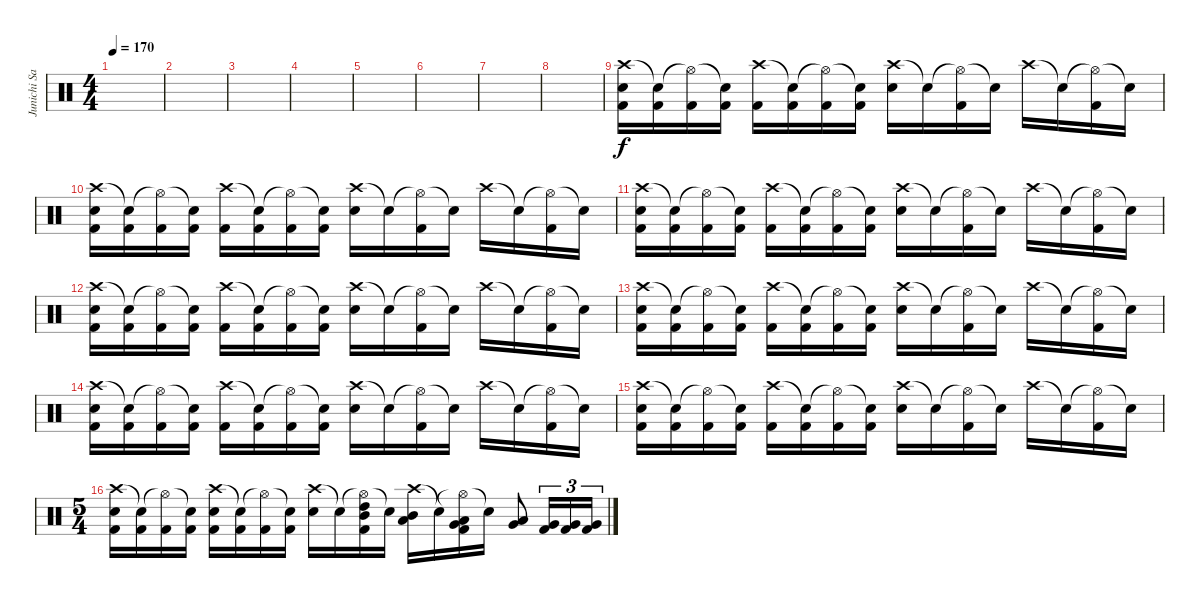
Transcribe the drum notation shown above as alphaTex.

\track ("Junichi Sato" "Junichi Sa") {instrument percussion}
\staff {score}
\articulation defaults
\ts (4 4)
\tempo 170
\clef neutral
\ks c
|
|
|
|
|
|
|
|
("Crash high (hit)" "Snare (hit) 2" "Kick (hit) 2").16 ("Snare (hit)"{t} "Kick (hit) 2").16 ("Hi-Hat (open)"{t} "Kick (hit) 2").16 ("Snare (hit)"{t} "Kick (hit) 2").16 ("Crash high (hit)" "Kick (hit) 2").16 ("Snare (hit)"{t} "Kick (hit) 2").16 ("Hi-Hat (open)"{t} "Kick (hit) 2").16 ("Snare (hit)"{t} "Kick (hit) 2").16 ("Crash high (hit)" "Snare (hit) 2").16 "Snare (hit)"{t}.16 ("Hi-Hat (open)"{t} "Kick (hit) 2").16 "Snare (hit)"{t}.16 "Crash high (hit)".16 "Snare (hit)"{t}.16 ("Hi-Hat (open)"{t} "Kick (hit) 2").16 "Snare (hit)"{t}.16 |
("Crash high (hit)" "Snare (hit) 2" "Kick (hit) 2").16 ("Snare (hit)"{t} "Kick (hit) 2").16 ("Hi-Hat (open)"{t} "Kick (hit) 2").16 ("Snare (hit)"{t} "Kick (hit) 2").16 ("Crash high (hit)" "Kick (hit) 2").16 ("Snare (hit)"{t} "Kick (hit) 2").16 ("Hi-Hat (open)"{t} "Kick (hit) 2").16 ("Snare (hit)"{t} "Kick (hit) 2").16 ("Crash high (hit)" "Snare (hit) 2").16 "Snare (hit)"{t}.16 ("Hi-Hat (open)"{t} "Kick (hit) 2").16 "Snare (hit)"{t}.16 "Crash high (hit)".16 "Snare (hit)"{t}.16 ("Hi-Hat (open)"{t} "Kick (hit) 2").16 "Snare (hit)"{t}.16 |
("Crash high (hit)" "Snare (hit) 2" "Kick (hit) 2").16 ("Snare (hit)"{t} "Kick (hit) 2").16 ("Hi-Hat (open)"{t} "Kick (hit) 2").16 ("Snare (hit)"{t} "Kick (hit) 2").16 ("Crash high (hit)" "Kick (hit) 2").16 ("Snare (hit)"{t} "Kick (hit) 2").16 ("Hi-Hat (open)"{t} "Kick (hit) 2").16 ("Snare (hit)"{t} "Kick (hit) 2").16 ("Crash high (hit)" "Snare (hit) 2").16 "Snare (hit)"{t}.16 ("Hi-Hat (open)"{t} "Kick (hit) 2").16 "Snare (hit)"{t}.16 "Crash high (hit)".16 "Snare (hit)"{t}.16 ("Hi-Hat (open)"{t} "Kick (hit) 2").16 "Snare (hit)"{t}.16 |
("Crash high (hit)" "Snare (hit) 2" "Kick (hit) 2").16 ("Snare (hit)"{t} "Kick (hit) 2").16 ("Hi-Hat (open)"{t} "Kick (hit) 2").16 ("Snare (hit)"{t} "Kick (hit) 2").16 ("Crash high (hit)" "Kick (hit) 2").16 ("Snare (hit)"{t} "Kick (hit) 2").16 ("Hi-Hat (open)"{t} "Kick (hit) 2").16 ("Snare (hit)"{t} "Kick (hit) 2").16 ("Crash high (hit)" "Snare (hit) 2").16 "Snare (hit)"{t}.16 ("Hi-Hat (open)"{t} "Kick (hit) 2").16 "Snare (hit)"{t}.16 "Crash high (hit)".16 "Snare (hit)"{t}.16 ("Hi-Hat (open)"{t} "Kick (hit) 2").16 "Snare (hit)"{t}.16 |
("Crash high (hit)" "Snare (hit) 2" "Kick (hit) 2").16 ("Snare (hit)"{t} "Kick (hit) 2").16 ("Hi-Hat (open)"{t} "Kick (hit) 2").16 ("Snare (hit)"{t} "Kick (hit) 2").16 ("Crash high (hit)" "Kick (hit) 2").16 ("Snare (hit)"{t} "Kick (hit) 2").16 ("Hi-Hat (open)"{t} "Kick (hit) 2").16 ("Snare (hit)"{t} "Kick (hit) 2").16 ("Crash high (hit)" "Snare (hit) 2").16 "Snare (hit)"{t}.16 ("Hi-Hat (open)"{t} "Kick (hit) 2").16 "Snare (hit)"{t}.16 "Crash high (hit)".16 "Snare (hit)"{t}.16 ("Hi-Hat (open)"{t} "Kick (hit) 2").16 "Snare (hit)"{t}.16 |
("Crash high (hit)" "Snare (hit) 2" "Kick (hit) 2").16 ("Snare (hit)"{t} "Kick (hit) 2").16 ("Hi-Hat (open)"{t} "Kick (hit) 2").16 ("Snare (hit)"{t} "Kick (hit) 2").16 ("Crash high (hit)" "Kick (hit) 2").16 ("Snare (hit)"{t} "Kick (hit) 2").16 ("Hi-Hat (open)"{t} "Kick (hit) 2").16 ("Snare (hit)"{t} "Kick (hit) 2").16 ("Crash high (hit)" "Snare (hit) 2").16 "Snare (hit)"{t}.16 ("Hi-Hat (open)"{t} "Kick (hit) 2").16 "Snare (hit)"{t}.16 "Crash high (hit)".16 "Snare (hit)"{t}.16 ("Hi-Hat (open)"{t} "Kick (hit) 2").16 "Snare (hit)"{t}.16 |
("Crash high (hit)" "Snare (hit) 2" "Kick (hit) 2").16 ("Snare (hit)"{t} "Kick (hit) 2").16 ("Hi-Hat (open)"{t} "Kick (hit) 2").16 ("Snare (hit)"{t} "Kick (hit) 2").16 ("Crash high (hit)" "Kick (hit) 2").16 ("Snare (hit)"{t} "Kick (hit) 2").16 ("Hi-Hat (open)"{t} "Kick (hit) 2").16 ("Snare (hit)"{t} "Kick (hit) 2").16 ("Crash high (hit)" "Snare (hit) 2").16 "Snare (hit)"{t}.16 ("Hi-Hat (open)"{t} "Kick (hit) 2").16 "Snare (hit)"{t}.16 "Crash high (hit)".16 "Snare (hit)"{t}.16 ("Hi-Hat (open)"{t} "Kick (hit) 2").16 "Snare (hit)"{t}.16 |
\ts (5 4)
("Crash high (hit)" "Snare (hit) 2" "Kick (hit) 2").16 ("Snare (hit)"{t} "Kick (hit) 2").16 ("Hi-Hat (open)"{t} "Kick (hit) 2").16 ("Snare (hit)"{t} "Kick (hit) 2").16 ("Crash high (hit)" "Snare (hit) 2" "Kick (hit) 2").16 ("Snare (hit)"{t} "Kick (hit) 2").16 ("Hi-Hat (open)"{t} "Kick (hit) 2").16 ("Snare (hit)"{t} "Kick (hit) 2").16 ("Crash high (hit)" "Snare (hit) 2").16 "Snare (hit)"{t}.16 ("Hi-Hat (open)"{t} "High Tom (hit)" "Mid Tom (hit)" "Kick (hit) 2").16 "Snare (hit)"{t}.16 ("Crash high (hit)" "Mid Tom (hit)" "Low Tom (hit)").16 "Snare (hit)"{t}.16 ("Hi-Hat (open)"{t} "Low Tom (hit)" "Very Low Tom (hit)" "Kick (hit) 2").16 "Snare (hit)"{t}.16 ("Very Low Tom (hit)" "Low Floor Tom (hit)").8 ("Very Low Tom (hit)" "Kick (hit) 2").16{tu (3 2)} ("Very Low Tom (hit)" "Kick (hit) 2").16{tu (3 2)} ("Very Low Tom (hit)" "Kick (hit) 2").16{tu (3 2)}
